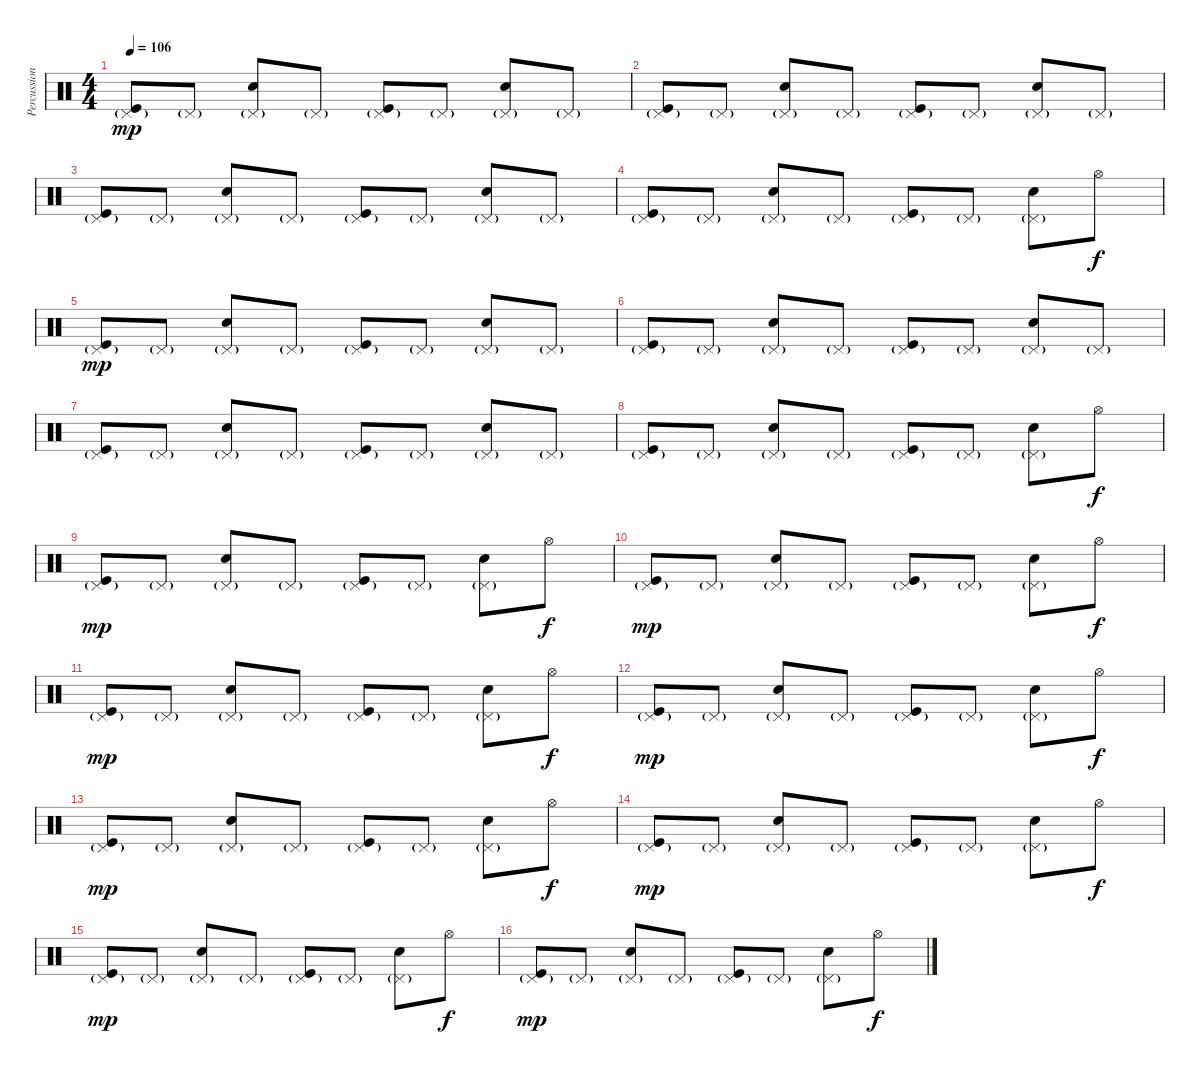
\track ("Percussions" "Percussion") {instrument percussion}
\staff {score}
\articulation defaults
\ts (4 4)
\tempo 106
\clef neutral
\ks c
("Pedal Hi-Hat (hit)"{g} "Kick (hit)").8{dy mp volume 13} "Pedal Hi-Hat (hit)"{g}.8 ("Pedal Hi-Hat (hit)"{g} "Electric Snare (hit)").8 "Pedal Hi-Hat (hit)"{g}.8 ("Pedal Hi-Hat (hit)"{g} "Kick (hit)").8 "Pedal Hi-Hat (hit)"{g}.8 ("Pedal Hi-Hat (hit)"{g} "Electric Snare (hit)").8 "Pedal Hi-Hat (hit)"{g}.8 |
("Pedal Hi-Hat (hit)"{g} "Kick (hit)").8 "Pedal Hi-Hat (hit)"{g}.8 ("Pedal Hi-Hat (hit)"{g} "Electric Snare (hit)").8 "Pedal Hi-Hat (hit)"{g}.8 ("Pedal Hi-Hat (hit)"{g} "Kick (hit)").8 "Pedal Hi-Hat (hit)"{g}.8 ("Pedal Hi-Hat (hit)"{g} "Electric Snare (hit)").8 "Pedal Hi-Hat (hit)"{g}.8 |
("Pedal Hi-Hat (hit)"{g} "Kick (hit)").8 "Pedal Hi-Hat (hit)"{g}.8 ("Pedal Hi-Hat (hit)"{g} "Electric Snare (hit)").8 "Pedal Hi-Hat (hit)"{g}.8 ("Pedal Hi-Hat (hit)"{g} "Kick (hit)").8 "Pedal Hi-Hat (hit)"{g}.8 ("Pedal Hi-Hat (hit)"{g} "Electric Snare (hit)").8 "Pedal Hi-Hat (hit)"{g}.8 |
("Pedal Hi-Hat (hit)"{g} "Kick (hit)").8 "Pedal Hi-Hat (hit)"{g}.8 ("Pedal Hi-Hat (hit)"{g} "Electric Snare (hit)").8 "Pedal Hi-Hat (hit)"{g}.8 ("Pedal Hi-Hat (hit)"{g} "Kick (hit)").8 "Pedal Hi-Hat (hit)"{g}.8 ("Pedal Hi-Hat (hit)"{g} "Electric Snare (hit)").8 "Hi-Hat (open)".8{dy f} |
("Pedal Hi-Hat (hit)"{g} "Kick (hit)").8{dy mp volume 13} "Pedal Hi-Hat (hit)"{g}.8 ("Pedal Hi-Hat (hit)"{g} "Electric Snare (hit)").8 "Pedal Hi-Hat (hit)"{g}.8 ("Pedal Hi-Hat (hit)"{g} "Kick (hit)").8 "Pedal Hi-Hat (hit)"{g}.8 ("Pedal Hi-Hat (hit)"{g} "Electric Snare (hit)").8 "Pedal Hi-Hat (hit)"{g}.8 |
("Pedal Hi-Hat (hit)"{g} "Kick (hit)").8 "Pedal Hi-Hat (hit)"{g}.8 ("Pedal Hi-Hat (hit)"{g} "Electric Snare (hit)").8 "Pedal Hi-Hat (hit)"{g}.8 ("Pedal Hi-Hat (hit)"{g} "Kick (hit)").8 "Pedal Hi-Hat (hit)"{g}.8 ("Pedal Hi-Hat (hit)"{g} "Electric Snare (hit)").8 "Pedal Hi-Hat (hit)"{g}.8 |
("Pedal Hi-Hat (hit)"{g} "Kick (hit)").8 "Pedal Hi-Hat (hit)"{g}.8 ("Pedal Hi-Hat (hit)"{g} "Electric Snare (hit)").8 "Pedal Hi-Hat (hit)"{g}.8 ("Pedal Hi-Hat (hit)"{g} "Kick (hit)").8 "Pedal Hi-Hat (hit)"{g}.8 ("Pedal Hi-Hat (hit)"{g} "Electric Snare (hit)").8 "Pedal Hi-Hat (hit)"{g}.8 |
("Pedal Hi-Hat (hit)"{g} "Kick (hit)").8 "Pedal Hi-Hat (hit)"{g}.8 ("Pedal Hi-Hat (hit)"{g} "Electric Snare (hit)").8 "Pedal Hi-Hat (hit)"{g}.8 ("Pedal Hi-Hat (hit)"{g} "Kick (hit)").8 "Pedal Hi-Hat (hit)"{g}.8 ("Pedal Hi-Hat (hit)"{g} "Electric Snare (hit)").8 "Hi-Hat (open)".8{dy f} |
("Pedal Hi-Hat (hit)"{g} "Kick (hit)").8{dy mp} "Pedal Hi-Hat (hit)"{g}.8 ("Pedal Hi-Hat (hit)"{g} "Electric Snare (hit)").8 "Pedal Hi-Hat (hit)"{g}.8 ("Pedal Hi-Hat (hit)"{g} "Kick (hit)").8 "Pedal Hi-Hat (hit)"{g}.8 ("Pedal Hi-Hat (hit)"{g} "Electric Snare (hit)").8 "Hi-Hat (open)".8{dy f} |
("Pedal Hi-Hat (hit)"{g} "Kick (hit)").8{dy mp} "Pedal Hi-Hat (hit)"{g}.8 ("Pedal Hi-Hat (hit)"{g} "Electric Snare (hit)").8 "Pedal Hi-Hat (hit)"{g}.8 ("Pedal Hi-Hat (hit)"{g} "Kick (hit)").8 "Pedal Hi-Hat (hit)"{g}.8 ("Pedal Hi-Hat (hit)"{g} "Electric Snare (hit)").8 "Hi-Hat (open)".8{dy f} |
("Pedal Hi-Hat (hit)"{g} "Kick (hit)").8{dy mp} "Pedal Hi-Hat (hit)"{g}.8 ("Pedal Hi-Hat (hit)"{g} "Electric Snare (hit)").8 "Pedal Hi-Hat (hit)"{g}.8 ("Pedal Hi-Hat (hit)"{g} "Kick (hit)").8 "Pedal Hi-Hat (hit)"{g}.8 ("Pedal Hi-Hat (hit)"{g} "Electric Snare (hit)").8 "Hi-Hat (open)".8{dy f} |
("Pedal Hi-Hat (hit)"{g} "Kick (hit)").8{dy mp} "Pedal Hi-Hat (hit)"{g}.8 ("Pedal Hi-Hat (hit)"{g} "Electric Snare (hit)").8 "Pedal Hi-Hat (hit)"{g}.8 ("Pedal Hi-Hat (hit)"{g} "Kick (hit)").8 "Pedal Hi-Hat (hit)"{g}.8 ("Pedal Hi-Hat (hit)"{g} "Electric Snare (hit)").8 "Hi-Hat (open)".8{dy f} |
("Pedal Hi-Hat (hit)"{g} "Kick (hit)").8{dy mp} "Pedal Hi-Hat (hit)"{g}.8 ("Pedal Hi-Hat (hit)"{g} "Electric Snare (hit)").8 "Pedal Hi-Hat (hit)"{g}.8 ("Pedal Hi-Hat (hit)"{g} "Kick (hit)").8 "Pedal Hi-Hat (hit)"{g}.8 ("Pedal Hi-Hat (hit)"{g} "Electric Snare (hit)").8 "Hi-Hat (open)".8{dy f} |
("Pedal Hi-Hat (hit)"{g} "Kick (hit)").8{dy mp} "Pedal Hi-Hat (hit)"{g}.8 ("Pedal Hi-Hat (hit)"{g} "Electric Snare (hit)").8 "Pedal Hi-Hat (hit)"{g}.8 ("Pedal Hi-Hat (hit)"{g} "Kick (hit)").8 "Pedal Hi-Hat (hit)"{g}.8 ("Pedal Hi-Hat (hit)"{g} "Electric Snare (hit)").8 "Hi-Hat (open)".8{dy f} |
("Pedal Hi-Hat (hit)"{g} "Kick (hit)").8{dy mp} "Pedal Hi-Hat (hit)"{g}.8 ("Pedal Hi-Hat (hit)"{g} "Electric Snare (hit)").8 "Pedal Hi-Hat (hit)"{g}.8 ("Pedal Hi-Hat (hit)"{g} "Kick (hit)").8 "Pedal Hi-Hat (hit)"{g}.8 ("Pedal Hi-Hat (hit)"{g} "Electric Snare (hit)").8 "Hi-Hat (open)".8{dy f} |
("Pedal Hi-Hat (hit)"{g} "Kick (hit)").8{dy mp} "Pedal Hi-Hat (hit)"{g}.8 ("Pedal Hi-Hat (hit)"{g} "Electric Snare (hit)").8 "Pedal Hi-Hat (hit)"{g}.8 ("Pedal Hi-Hat (hit)"{g} "Kick (hit)").8 "Pedal Hi-Hat (hit)"{g}.8 ("Pedal Hi-Hat (hit)"{g} "Electric Snare (hit)").8 "Hi-Hat (open)".8{dy f}
